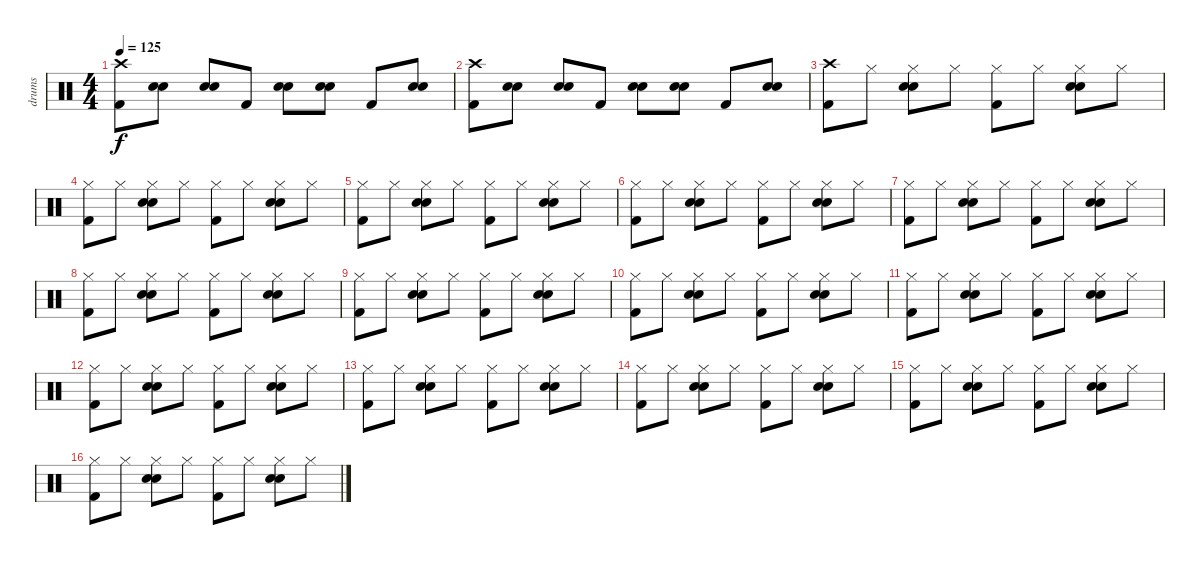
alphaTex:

\track ("drums" "drums") {instrument percussion}
\staff {score}
\articulation defaults
\ts (4 4)
\tempo 125
\clef neutral
\ks c
("Crash high (hit)" "Kick (hit) 2").8{dy f} ("Snare (hit) 2" "Electric Snare (hit)").8 ("Snare (hit) 2" "Electric Snare (hit)").8 "Kick (hit) 2".8 ("Electric Snare (hit)" "Snare (hit) 2").8 ("Electric Snare (hit)" "Snare (hit) 2").8 "Kick (hit) 2".8 ("Electric Snare (hit)" "Snare (hit) 2").8 |
("Crash high (hit)" "Kick (hit) 2").8 ("Snare (hit) 2" "Electric Snare (hit)").8 ("Snare (hit) 2" "Electric Snare (hit)").8 "Kick (hit) 2".8 ("Electric Snare (hit)" "Snare (hit) 2").8 ("Electric Snare (hit)" "Snare (hit) 2").8 "Kick (hit) 2".8 ("Electric Snare (hit)" "Snare (hit) 2").8 |
("Crash high (hit)" "Kick (hit) 2").8 "Hi-Hat (closed)".8 ("Hi-Hat (closed)" "Snare (hit) 2" "Electric Snare (hit)").8 "Hi-Hat (closed)".8 ("Hi-Hat (closed)" "Kick (hit) 2").8 "Hi-Hat (closed)".8 ("Hi-Hat (closed)" "Snare (hit) 2" "Electric Snare (hit)").8 "Hi-Hat (closed)".8 |
("Hi-Hat (closed)" "Kick (hit) 2").8 "Hi-Hat (closed)".8 ("Hi-Hat (closed)" "Snare (hit) 2" "Electric Snare (hit)").8 "Hi-Hat (closed)".8 ("Hi-Hat (closed)" "Kick (hit) 2").8 "Hi-Hat (closed)".8 ("Hi-Hat (closed)" "Snare (hit) 2" "Electric Snare (hit)").8 "Hi-Hat (closed)".8 |
("Hi-Hat (closed)" "Kick (hit) 2").8 "Hi-Hat (closed)".8 ("Hi-Hat (closed)" "Snare (hit) 2" "Electric Snare (hit)").8 "Hi-Hat (closed)".8 ("Hi-Hat (closed)" "Kick (hit) 2").8 "Hi-Hat (closed)".8 ("Hi-Hat (closed)" "Snare (hit) 2" "Electric Snare (hit)").8 "Hi-Hat (closed)".8 |
("Hi-Hat (closed)" "Kick (hit) 2").8 "Hi-Hat (closed)".8 ("Hi-Hat (closed)" "Snare (hit) 2" "Electric Snare (hit)").8 "Hi-Hat (closed)".8 ("Hi-Hat (closed)" "Kick (hit) 2").8 "Hi-Hat (closed)".8 ("Hi-Hat (closed)" "Snare (hit) 2" "Electric Snare (hit)").8 "Hi-Hat (closed)".8 |
("Hi-Hat (closed)" "Kick (hit) 2").8 "Hi-Hat (closed)".8 ("Hi-Hat (closed)" "Snare (hit) 2" "Electric Snare (hit)").8 "Hi-Hat (closed)".8 ("Hi-Hat (closed)" "Kick (hit) 2").8 "Hi-Hat (closed)".8 ("Hi-Hat (closed)" "Snare (hit) 2" "Electric Snare (hit)").8 "Hi-Hat (closed)".8 |
("Hi-Hat (closed)" "Kick (hit) 2").8 "Hi-Hat (closed)".8 ("Hi-Hat (closed)" "Snare (hit) 2" "Electric Snare (hit)").8 "Hi-Hat (closed)".8 ("Hi-Hat (closed)" "Kick (hit) 2").8 "Hi-Hat (closed)".8 ("Hi-Hat (closed)" "Snare (hit) 2" "Electric Snare (hit)").8 "Hi-Hat (closed)".8 |
("Hi-Hat (closed)" "Kick (hit) 2").8 "Hi-Hat (closed)".8 ("Hi-Hat (closed)" "Snare (hit) 2" "Electric Snare (hit)").8 "Hi-Hat (closed)".8 ("Hi-Hat (closed)" "Kick (hit) 2").8 "Hi-Hat (closed)".8 ("Hi-Hat (closed)" "Snare (hit) 2" "Electric Snare (hit)").8 "Hi-Hat (closed)".8 |
("Hi-Hat (closed)" "Kick (hit) 2").8 "Hi-Hat (closed)".8 ("Hi-Hat (closed)" "Snare (hit) 2" "Electric Snare (hit)").8 "Hi-Hat (closed)".8 ("Hi-Hat (closed)" "Kick (hit) 2").8 "Hi-Hat (closed)".8 ("Hi-Hat (closed)" "Snare (hit) 2" "Electric Snare (hit)").8 "Hi-Hat (closed)".8 |
("Hi-Hat (closed)" "Kick (hit) 2").8 "Hi-Hat (closed)".8 ("Hi-Hat (closed)" "Snare (hit) 2" "Electric Snare (hit)").8 "Hi-Hat (closed)".8 ("Hi-Hat (closed)" "Kick (hit) 2").8 "Hi-Hat (closed)".8 ("Hi-Hat (closed)" "Snare (hit) 2" "Electric Snare (hit)").8 "Hi-Hat (closed)".8 |
("Hi-Hat (closed)" "Kick (hit) 2").8 "Hi-Hat (closed)".8 ("Hi-Hat (closed)" "Snare (hit) 2" "Electric Snare (hit)").8 "Hi-Hat (closed)".8 ("Hi-Hat (closed)" "Kick (hit) 2").8 "Hi-Hat (closed)".8 ("Hi-Hat (closed)" "Snare (hit) 2" "Electric Snare (hit)").8 "Hi-Hat (closed)".8 |
("Hi-Hat (closed)" "Kick (hit) 2").8 "Hi-Hat (closed)".8 ("Hi-Hat (closed)" "Snare (hit) 2" "Electric Snare (hit)").8 "Hi-Hat (closed)".8 ("Hi-Hat (closed)" "Kick (hit) 2").8 "Hi-Hat (closed)".8 ("Hi-Hat (closed)" "Snare (hit) 2" "Electric Snare (hit)").8 "Hi-Hat (closed)".8 |
("Hi-Hat (closed)" "Kick (hit) 2").8 "Hi-Hat (closed)".8 ("Hi-Hat (closed)" "Snare (hit) 2" "Electric Snare (hit)").8 "Hi-Hat (closed)".8 ("Hi-Hat (closed)" "Kick (hit) 2").8 "Hi-Hat (closed)".8 ("Hi-Hat (closed)" "Snare (hit) 2" "Electric Snare (hit)").8 "Hi-Hat (closed)".8 |
("Hi-Hat (closed)" "Kick (hit) 2").8 "Hi-Hat (closed)".8 ("Hi-Hat (closed)" "Snare (hit) 2" "Electric Snare (hit)").8 "Hi-Hat (closed)".8 ("Hi-Hat (closed)" "Kick (hit) 2").8 "Hi-Hat (closed)".8 ("Hi-Hat (closed)" "Snare (hit) 2" "Electric Snare (hit)").8 "Hi-Hat (closed)".8 |
("Hi-Hat (closed)" "Kick (hit) 2").8 "Hi-Hat (closed)".8 ("Hi-Hat (closed)" "Snare (hit) 2" "Electric Snare (hit)").8 "Hi-Hat (closed)".8 ("Hi-Hat (closed)" "Kick (hit) 2").8 "Hi-Hat (closed)".8 ("Hi-Hat (closed)" "Snare (hit) 2" "Electric Snare (hit)").8 "Hi-Hat (closed)".8
